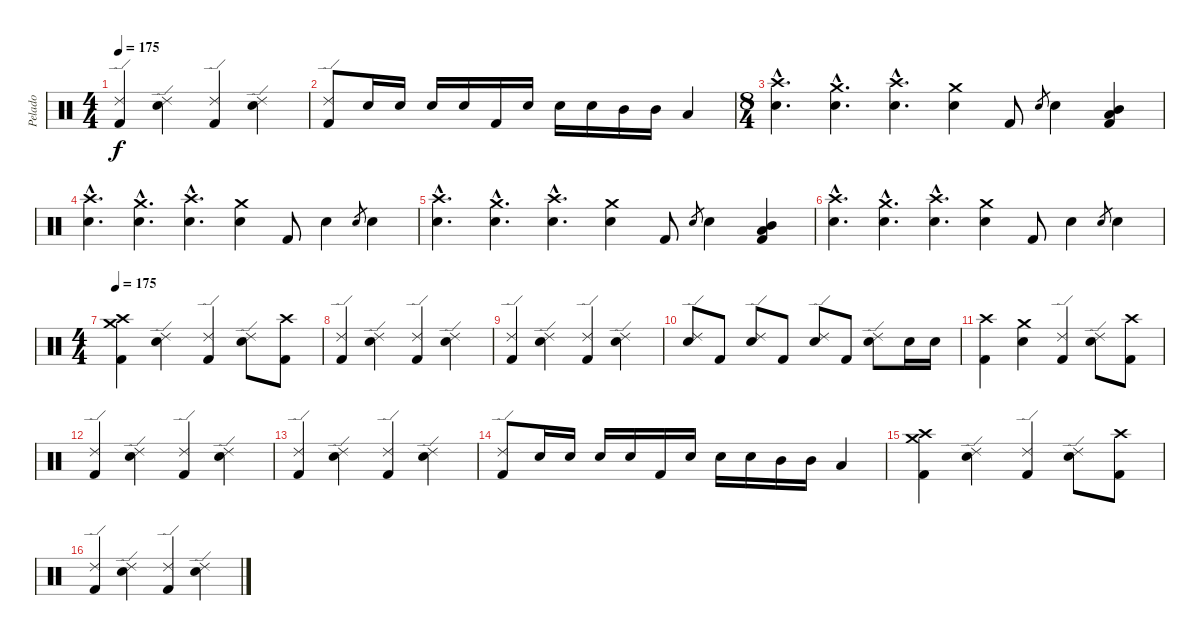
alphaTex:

\track ("Pelado" "Pelado") {instrument percussion}
\staff {score}
\articulation defaults
\ts (4 4)
\tempo 175
\clef neutral
\ks c
("Ride (edge) 2" "Kick (hit) 2").4{dy f} ("Ride (edge) 2" "Electric Snare (hit)").4 ("Ride (edge) 2" "Kick (hit) 2").4 ("Ride (edge) 2" "Electric Snare (hit)").4 |
("Ride (edge) 2" "Kick (hit) 2").8 "Electric Snare (hit)".16 "Electric Snare (hit)".16 "Electric Snare (hit)".16 "Electric Snare (hit)".16 "Kick (hit) 2".16 "Electric Snare (hit)".16 "Electric Snare (hit)".16 "Electric Snare (hit)".16 "Mid Tom (hit)".16 "Mid Tom (hit)".16 "Low Tom (hit)".4 |
\ts (8 4)
("Crash high (hit)"{hac} "Electric Snare (hit)"{hac}).4{d} ("Crash medium (hit)"{hac} "Electric Snare (hit)"{hac}).4{d} ("Crash high (hit)"{hac} "Electric Snare (hit)"{hac}).4{d} ("Crash medium (hit)" "Electric Snare (hit)").4 "Kick (hit) 2".8 "Electric Snare (hit)".8{gr} "Electric Snare (hit)".4 ("Mid Tom (hit)" "Low Tom (hit)" "Kick (hit) 2").4 |
("Crash high (hit)"{hac} "Electric Snare (hit)"{hac}).4{d} ("Crash medium (hit)"{hac} "Electric Snare (hit)"{hac}).4{d} ("Crash high (hit)"{hac} "Electric Snare (hit)"{hac}).4{d} ("Crash medium (hit)" "Electric Snare (hit)").4 "Kick (hit) 2".8 "Electric Snare (hit)".4 "Electric Snare (hit)".8{gr} "Electric Snare (hit)".4 |
("Crash high (hit)"{hac} "Electric Snare (hit)"{hac}).4{d} ("Crash medium (hit)"{hac} "Electric Snare (hit)"{hac}).4{d} ("Crash high (hit)"{hac} "Electric Snare (hit)"{hac}).4{d} ("Crash medium (hit)" "Electric Snare (hit)").4 "Kick (hit) 2".8 "Electric Snare (hit)".8{gr} "Electric Snare (hit)".4 ("Mid Tom (hit)" "Low Tom (hit)" "Kick (hit) 2").4 |
("Crash high (hit)"{hac} "Electric Snare (hit)"{hac}).4{d} ("Crash medium (hit)"{hac} "Electric Snare (hit)"{hac}).4{d} ("Crash high (hit)"{hac} "Electric Snare (hit)"{hac}).4{d} ("Crash medium (hit)" "Electric Snare (hit)").4 "Kick (hit) 2".8 "Electric Snare (hit)".4 "Electric Snare (hit)".8{gr} "Electric Snare (hit)".4 |
\ts (4 4)
\tempo 175
("Crash medium (hit)" "Crash high (hit)" "Kick (hit) 2").4 ("Ride (edge) 2" "Electric Snare (hit)").4 ("Ride (edge) 2" "Kick (hit) 2").4 ("Ride (edge) 2" "Electric Snare (hit)").8 ("Crash high (hit)" "Kick (hit) 2").8 |
("Ride (edge) 2" "Kick (hit) 2").4 ("Ride (edge) 2" "Electric Snare (hit)").4 ("Ride (edge) 2" "Kick (hit) 2").4 ("Ride (edge) 2" "Electric Snare (hit)").4 |
("Ride (edge) 2" "Kick (hit) 2").4 ("Ride (edge) 2" "Electric Snare (hit)").4 ("Ride (edge) 2" "Kick (hit) 2").4 ("Ride (edge) 2" "Electric Snare (hit)").4 |
("Ride (edge) 2" "Electric Snare (hit)").8 "Kick (hit) 2".8 ("Ride (edge) 2" "Electric Snare (hit)").8 "Kick (hit) 2".8 ("Ride (edge) 2" "Electric Snare (hit)").8 "Kick (hit) 2".8 ("Ride (edge) 2" "Electric Snare (hit)").8 "Electric Snare (hit)".16 "Electric Snare (hit)".16 |
("Crash high (hit)" "Kick (hit) 2").4 ("Crash medium (hit)" "Electric Snare (hit)").4 ("Ride (edge) 2" "Kick (hit) 2").4 ("Ride (edge) 2" "Electric Snare (hit)").8 ("Crash high (hit)" "Kick (hit) 2").8 |
("Ride (edge) 2" "Kick (hit) 2").4 ("Ride (edge) 2" "Electric Snare (hit)").4 ("Ride (edge) 2" "Kick (hit) 2").4 ("Ride (edge) 2" "Electric Snare (hit)").4 |
("Ride (edge) 2" "Kick (hit) 2").4 ("Ride (edge) 2" "Electric Snare (hit)").4 ("Ride (edge) 2" "Kick (hit) 2").4 ("Ride (edge) 2" "Electric Snare (hit)").4 |
("Ride (edge) 2" "Kick (hit) 2").8 "Electric Snare (hit)".16 "Electric Snare (hit)".16 "Electric Snare (hit)".16 "Electric Snare (hit)".16 "Kick (hit) 2".16 "Electric Snare (hit)".16 "Electric Snare (hit)".16 "Electric Snare (hit)".16 "Mid Tom (hit)".16 "Mid Tom (hit)".16 "Low Tom (hit)".4 |
("Crash medium (hit)" "Crash high (hit)" "Kick (hit) 2").4 ("Ride (edge) 2" "Electric Snare (hit)").4 ("Ride (edge) 2" "Kick (hit) 2").4 ("Ride (edge) 2" "Electric Snare (hit)").8 ("Crash high (hit)" "Kick (hit) 2").8 |
("Ride (edge) 2" "Kick (hit) 2").4 ("Ride (edge) 2" "Electric Snare (hit)").4 ("Ride (edge) 2" "Kick (hit) 2").4 ("Ride (edge) 2" "Electric Snare (hit)").4
